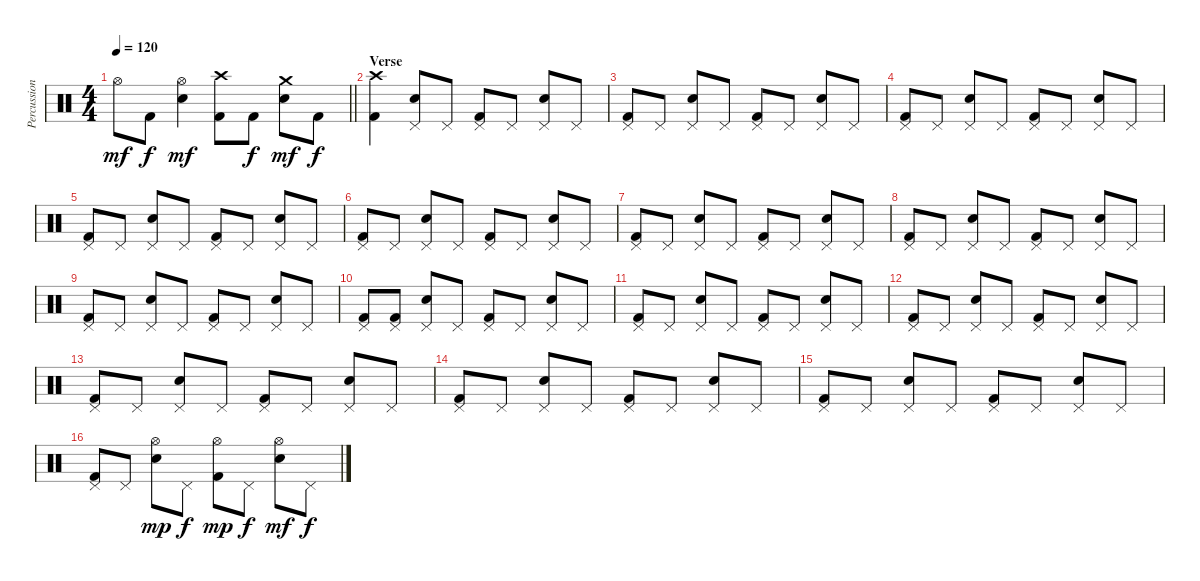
\track ("Percussion" "Percussion") {instrument percussion}
\staff {score}
\articulation defaults
\ts (4 4)
\tempo 120
\clef neutral
\barLineRight lightlight
\ks c "Hi-Hat (open)".8{dy mf} "Kick (hit) 2".8{dy f}
("Hi-Hat (open)" "Electric Snare (hit)").4{dy mf} ("Crash high (hit)" "Kick (hit) 2").8 "Kick (hit) 2".8{dy f} ("Crash medium (hit)" "Electric Snare (hit)").8{dy mf} "Kick (hit) 2".8{dy f} |
\section ("" "Verse")
("Crash high (hit)" "Kick (hit) 2").4 ("Pedal Hi-Hat (hit)" "Electric Snare (hit)").8 "Pedal Hi-Hat (hit)".8 ("Pedal Hi-Hat (hit)" "Kick (hit) 2").8 "Pedal Hi-Hat (hit)".8 ("Pedal Hi-Hat (hit)" "Electric Snare (hit)").8 "Pedal Hi-Hat (hit)".8 |
("Pedal Hi-Hat (hit)" "Kick (hit) 2").8 "Pedal Hi-Hat (hit)".8 ("Pedal Hi-Hat (hit)" "Electric Snare (hit)").8 "Pedal Hi-Hat (hit)".8 ("Pedal Hi-Hat (hit)" "Kick (hit) 2").8 "Pedal Hi-Hat (hit)".8 ("Pedal Hi-Hat (hit)" "Electric Snare (hit)").8 "Pedal Hi-Hat (hit)".8 |
("Pedal Hi-Hat (hit)" "Kick (hit) 2").8 "Pedal Hi-Hat (hit)".8 ("Pedal Hi-Hat (hit)" "Electric Snare (hit)").8 "Pedal Hi-Hat (hit)".8 ("Pedal Hi-Hat (hit)" "Kick (hit) 2").8 "Pedal Hi-Hat (hit)".8 ("Pedal Hi-Hat (hit)" "Electric Snare (hit)").8 "Pedal Hi-Hat (hit)".8 |
("Pedal Hi-Hat (hit)" "Kick (hit) 2").8 "Pedal Hi-Hat (hit)".8 ("Pedal Hi-Hat (hit)" "Electric Snare (hit)").8 "Pedal Hi-Hat (hit)".8 ("Pedal Hi-Hat (hit)" "Kick (hit) 2").8 "Pedal Hi-Hat (hit)".8 ("Pedal Hi-Hat (hit)" "Electric Snare (hit)").8 "Pedal Hi-Hat (hit)".8 |
("Pedal Hi-Hat (hit)" "Kick (hit) 2").8 "Pedal Hi-Hat (hit)".8 ("Pedal Hi-Hat (hit)" "Electric Snare (hit)").8 "Pedal Hi-Hat (hit)".8 ("Pedal Hi-Hat (hit)" "Kick (hit) 2").8 "Pedal Hi-Hat (hit)".8 ("Pedal Hi-Hat (hit)" "Electric Snare (hit)").8 "Pedal Hi-Hat (hit)".8 |
("Pedal Hi-Hat (hit)" "Kick (hit) 2").8 "Pedal Hi-Hat (hit)".8 ("Pedal Hi-Hat (hit)" "Electric Snare (hit)").8 "Pedal Hi-Hat (hit)".8 ("Pedal Hi-Hat (hit)" "Kick (hit) 2").8 "Pedal Hi-Hat (hit)".8 ("Pedal Hi-Hat (hit)" "Electric Snare (hit)").8 "Pedal Hi-Hat (hit)".8 |
("Pedal Hi-Hat (hit)" "Kick (hit) 2").8 "Pedal Hi-Hat (hit)".8 ("Pedal Hi-Hat (hit)" "Electric Snare (hit)").8 "Pedal Hi-Hat (hit)".8 ("Pedal Hi-Hat (hit)" "Kick (hit) 2").8 "Pedal Hi-Hat (hit)".8 ("Pedal Hi-Hat (hit)" "Electric Snare (hit)").8 "Pedal Hi-Hat (hit)".8 |
("Pedal Hi-Hat (hit)" "Kick (hit) 2").8 "Pedal Hi-Hat (hit)".8 ("Pedal Hi-Hat (hit)" "Electric Snare (hit)").8 "Pedal Hi-Hat (hit)".8 ("Pedal Hi-Hat (hit)" "Kick (hit) 2").8 "Pedal Hi-Hat (hit)".8 ("Pedal Hi-Hat (hit)" "Electric Snare (hit)").8 "Pedal Hi-Hat (hit)".8 |
("Pedal Hi-Hat (hit)" "Kick (hit) 2").8 ("Pedal Hi-Hat (hit)" "Kick (hit) 2").8 ("Pedal Hi-Hat (hit)" "Electric Snare (hit)").8 "Pedal Hi-Hat (hit)".8 ("Pedal Hi-Hat (hit)" "Kick (hit) 2").8 "Pedal Hi-Hat (hit)".8 ("Pedal Hi-Hat (hit)" "Electric Snare (hit)").8 "Pedal Hi-Hat (hit)".8 |
("Pedal Hi-Hat (hit)" "Kick (hit) 2").8 "Pedal Hi-Hat (hit)".8 ("Pedal Hi-Hat (hit)" "Electric Snare (hit)").8 "Pedal Hi-Hat (hit)".8 ("Pedal Hi-Hat (hit)" "Kick (hit) 2").8 "Pedal Hi-Hat (hit)".8 ("Pedal Hi-Hat (hit)" "Electric Snare (hit)").8 "Pedal Hi-Hat (hit)".8 |
("Pedal Hi-Hat (hit)" "Kick (hit) 2").8 "Pedal Hi-Hat (hit)".8 ("Pedal Hi-Hat (hit)" "Electric Snare (hit)").8 "Pedal Hi-Hat (hit)".8 ("Pedal Hi-Hat (hit)" "Kick (hit) 2").8 "Pedal Hi-Hat (hit)".8 ("Pedal Hi-Hat (hit)" "Electric Snare (hit)").8 "Pedal Hi-Hat (hit)".8 |
("Pedal Hi-Hat (hit)" "Kick (hit) 2").8 "Pedal Hi-Hat (hit)".8 ("Pedal Hi-Hat (hit)" "Electric Snare (hit)").8 "Pedal Hi-Hat (hit)".8 ("Pedal Hi-Hat (hit)" "Kick (hit) 2").8 "Pedal Hi-Hat (hit)".8 ("Pedal Hi-Hat (hit)" "Electric Snare (hit)").8 "Pedal Hi-Hat (hit)".8 |
("Pedal Hi-Hat (hit)" "Kick (hit) 2").8 "Pedal Hi-Hat (hit)".8 ("Pedal Hi-Hat (hit)" "Electric Snare (hit)").8 "Pedal Hi-Hat (hit)".8 ("Pedal Hi-Hat (hit)" "Kick (hit) 2").8 "Pedal Hi-Hat (hit)".8 ("Pedal Hi-Hat (hit)" "Electric Snare (hit)").8 "Pedal Hi-Hat (hit)".8 |
("Pedal Hi-Hat (hit)" "Kick (hit) 2").8 "Pedal Hi-Hat (hit)".8 ("Pedal Hi-Hat (hit)" "Electric Snare (hit)").8 "Pedal Hi-Hat (hit)".8 ("Pedal Hi-Hat (hit)" "Kick (hit) 2").8 "Pedal Hi-Hat (hit)".8 ("Pedal Hi-Hat (hit)" "Electric Snare (hit)").8 "Pedal Hi-Hat (hit)".8 |
("Pedal Hi-Hat (hit)" "Kick (hit) 2").8 "Pedal Hi-Hat (hit)".8 ("Hi-Hat (open)" "Electric Snare (hit)").8{dy mp} "Pedal Hi-Hat (hit)".8{dy f} ("Hi-Hat (open)" "Kick (hit) 2").8{dy mp} "Pedal Hi-Hat (hit)".8{dy f} ("Hi-Hat (open)" "Electric Snare (hit)").8{dy mf} "Pedal Hi-Hat (hit)".8{dy f}
